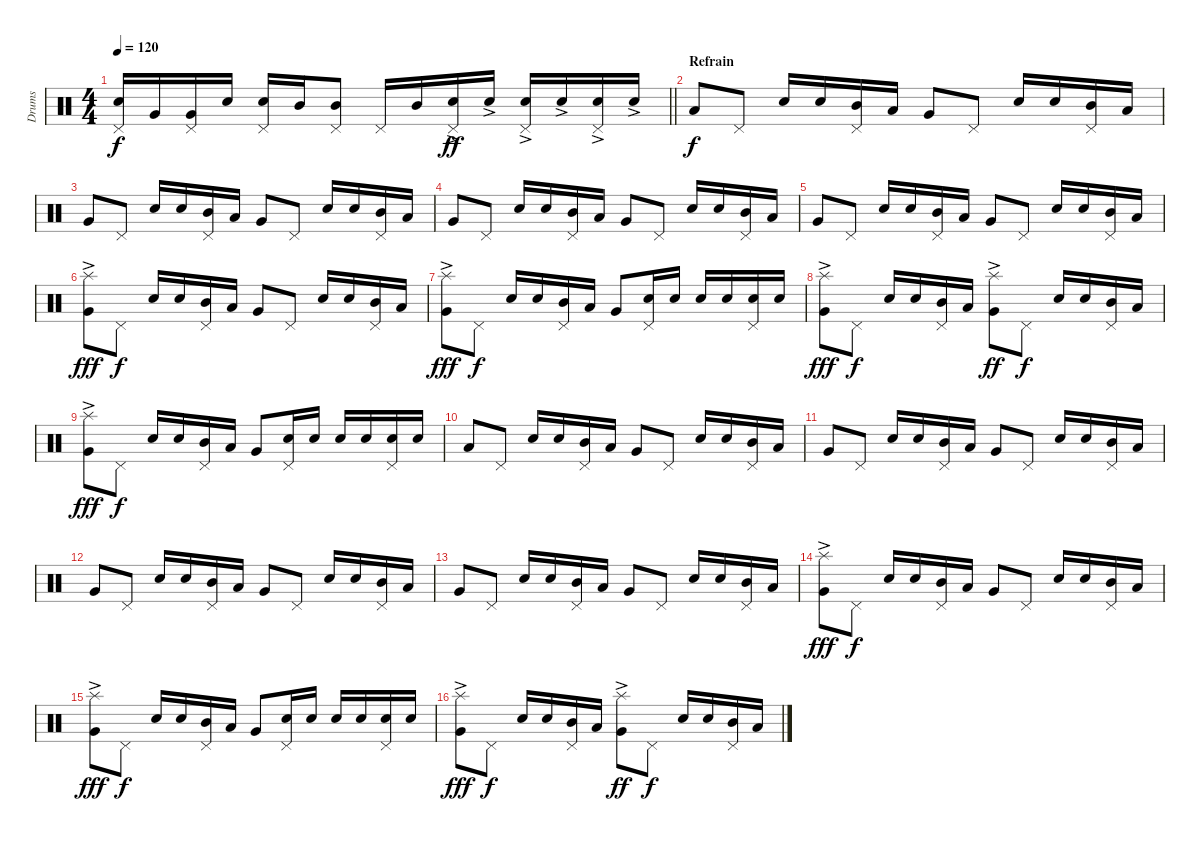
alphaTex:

\track ("Drums" "Drums") {instrument percussion}
\staff {score}
\articulation defaults
\ts (4 4)
\tempo 120
\clef neutral
\barLineRight lightlight
\ks c
("Snare (hit) 2" "Pedal Hi-Hat (hit)").16{dy f} "Very Low Tom (hit)".16 ("Very Low Tom (hit)" "Pedal Hi-Hat (hit)").16 "Snare (hit) 2".16 ("Snare (hit) 2" "Pedal Hi-Hat (hit)").16 "Mid Tom (hit)".16 ("Mid Tom (hit)" "Pedal Hi-Hat (hit)").8 "Pedal Hi-Hat (hit)".16 "Mid Tom (hit)".16 ("Snare (hit) 2"{ac} "Pedal Hi-Hat (hit)"{ac}).16{dy ff} "Snare (hit) 2"{ac}.16 ("Snare (hit) 2"{ac} "Pedal Hi-Hat (hit)"{ac}).16 "Snare (hit) 2"{ac}.16 ("Snare (hit) 2"{ac} "Pedal Hi-Hat (hit)"{ac}).16 "Snare (hit) 2"{ac}.16 |
\section ("" "Refrain")
"Low Tom (hit)".8{dy f} "Pedal Hi-Hat (hit)".8 "Snare (hit) 2".16 "Snare (hit) 2".16 ("Mid Tom (hit)" "Pedal Hi-Hat (hit)").16 "Low Tom (hit)".16 "Very Low Tom (hit)".8 "Pedal Hi-Hat (hit)".8 "Snare (hit) 2".16 "Snare (hit) 2".16 ("Mid Tom (hit)" "Pedal Hi-Hat (hit)").16 "Low Tom (hit)".16 |
"Very Low Tom (hit)".8 "Pedal Hi-Hat (hit)".8 "Snare (hit) 2".16 "Snare (hit) 2".16 ("Mid Tom (hit)" "Pedal Hi-Hat (hit)").16 "Low Tom (hit)".16 "Very Low Tom (hit)".8 "Pedal Hi-Hat (hit)".8 "Snare (hit) 2".16 "Snare (hit) 2".16 ("Mid Tom (hit)" "Pedal Hi-Hat (hit)").16 "Low Tom (hit)".16 |
"Very Low Tom (hit)".8 "Pedal Hi-Hat (hit)".8 "Snare (hit) 2".16 "Snare (hit) 2".16 ("Mid Tom (hit)" "Pedal Hi-Hat (hit)").16 "Low Tom (hit)".16 "Very Low Tom (hit)".8 "Pedal Hi-Hat (hit)".8 "Snare (hit) 2".16 "Snare (hit) 2".16 ("Mid Tom (hit)" "Pedal Hi-Hat (hit)").16 "Low Tom (hit)".16 |
"Very Low Tom (hit)".8 "Pedal Hi-Hat (hit)".8 "Snare (hit) 2".16 "Snare (hit) 2".16 ("Mid Tom (hit)" "Pedal Hi-Hat (hit)").16 "Low Tom (hit)".16 "Very Low Tom (hit)".8 "Pedal Hi-Hat (hit)".8 "Snare (hit) 2".16 "Snare (hit) 2".16 ("Mid Tom (hit)" "Pedal Hi-Hat (hit)").16 "Low Tom (hit)".16 |
("Splash (hit)"{ac} "Very Low Tom (hit)").8{dy fff} "Pedal Hi-Hat (hit)".8{dy f} "Snare (hit) 2".16 "Snare (hit) 2".16 ("Mid Tom (hit)" "Pedal Hi-Hat (hit)").16 "Low Tom (hit)".16 "Very Low Tom (hit)".8 "Pedal Hi-Hat (hit)".8 "Snare (hit) 2".16 "Snare (hit) 2".16 ("Mid Tom (hit)" "Pedal Hi-Hat (hit)").16 "Low Tom (hit)".16 |
("Splash (hit)"{ac} "Very Low Tom (hit)").8{dy fff} "Pedal Hi-Hat (hit)".8{dy f} "Snare (hit) 2".16 "Snare (hit) 2".16 ("Mid Tom (hit)" "Pedal Hi-Hat (hit)").16 "Low Tom (hit)".16 "Very Low Tom (hit)".8 ("Snare (hit) 2" "Pedal Hi-Hat (hit)").16 "Snare (hit) 2".16 "Snare (hit) 2".16 "Snare (hit) 2".16 ("Snare (hit) 2" "Pedal Hi-Hat (hit)").16 "Snare (hit) 2".16 |
("Splash (hit)"{ac} "Very Low Tom (hit)").8{dy fff} "Pedal Hi-Hat (hit)".8{dy f} "Snare (hit) 2".16 "Snare (hit) 2".16 ("Mid Tom (hit)" "Pedal Hi-Hat (hit)").16 "Low Tom (hit)".16 ("Splash (hit)"{ac} "Very Low Tom (hit)").8{dy ff} "Pedal Hi-Hat (hit)".8{dy f} "Snare (hit) 2".16 "Snare (hit) 2".16 ("Mid Tom (hit)" "Pedal Hi-Hat (hit)").16 "Low Tom (hit)".16 |
("Splash (hit)"{ac} "Very Low Tom (hit)").8{dy fff} "Pedal Hi-Hat (hit)".8{dy f} "Snare (hit) 2".16 "Snare (hit) 2".16 ("Mid Tom (hit)" "Pedal Hi-Hat (hit)").16 "Low Tom (hit)".16 "Very Low Tom (hit)".8 ("Snare (hit) 2" "Pedal Hi-Hat (hit)").16 "Snare (hit) 2".16 "Snare (hit) 2".16 "Snare (hit) 2".16 ("Snare (hit) 2" "Pedal Hi-Hat (hit)").16 "Snare (hit) 2".16 |
"Low Tom (hit)".8 "Pedal Hi-Hat (hit)".8 "Snare (hit) 2".16 "Snare (hit) 2".16 ("Mid Tom (hit)" "Pedal Hi-Hat (hit)").16 "Low Tom (hit)".16 "Very Low Tom (hit)".8 "Pedal Hi-Hat (hit)".8 "Snare (hit) 2".16 "Snare (hit) 2".16 ("Mid Tom (hit)" "Pedal Hi-Hat (hit)").16 "Low Tom (hit)".16 |
"Very Low Tom (hit)".8 "Pedal Hi-Hat (hit)".8 "Snare (hit) 2".16 "Snare (hit) 2".16 ("Mid Tom (hit)" "Pedal Hi-Hat (hit)").16 "Low Tom (hit)".16 "Very Low Tom (hit)".8 "Pedal Hi-Hat (hit)".8 "Snare (hit) 2".16 "Snare (hit) 2".16 ("Mid Tom (hit)" "Pedal Hi-Hat (hit)").16 "Low Tom (hit)".16 |
"Very Low Tom (hit)".8 "Pedal Hi-Hat (hit)".8 "Snare (hit) 2".16 "Snare (hit) 2".16 ("Mid Tom (hit)" "Pedal Hi-Hat (hit)").16 "Low Tom (hit)".16 "Very Low Tom (hit)".8 "Pedal Hi-Hat (hit)".8 "Snare (hit) 2".16 "Snare (hit) 2".16 ("Mid Tom (hit)" "Pedal Hi-Hat (hit)").16 "Low Tom (hit)".16 |
"Very Low Tom (hit)".8 "Pedal Hi-Hat (hit)".8 "Snare (hit) 2".16 "Snare (hit) 2".16 ("Mid Tom (hit)" "Pedal Hi-Hat (hit)").16 "Low Tom (hit)".16 "Very Low Tom (hit)".8 "Pedal Hi-Hat (hit)".8 "Snare (hit) 2".16 "Snare (hit) 2".16 ("Mid Tom (hit)" "Pedal Hi-Hat (hit)").16 "Low Tom (hit)".16 |
("Splash (hit)"{ac} "Very Low Tom (hit)").8{dy fff} "Pedal Hi-Hat (hit)".8{dy f} "Snare (hit) 2".16 "Snare (hit) 2".16 ("Mid Tom (hit)" "Pedal Hi-Hat (hit)").16 "Low Tom (hit)".16 "Very Low Tom (hit)".8 "Pedal Hi-Hat (hit)".8 "Snare (hit) 2".16 "Snare (hit) 2".16 ("Mid Tom (hit)" "Pedal Hi-Hat (hit)").16 "Low Tom (hit)".16 |
("Splash (hit)"{ac} "Very Low Tom (hit)").8{dy fff} "Pedal Hi-Hat (hit)".8{dy f} "Snare (hit) 2".16 "Snare (hit) 2".16 ("Mid Tom (hit)" "Pedal Hi-Hat (hit)").16 "Low Tom (hit)".16 "Very Low Tom (hit)".8 ("Snare (hit) 2" "Pedal Hi-Hat (hit)").16 "Snare (hit) 2".16 "Snare (hit) 2".16 "Snare (hit) 2".16 ("Snare (hit) 2" "Pedal Hi-Hat (hit)").16 "Snare (hit) 2".16 |
("Splash (hit)"{ac} "Very Low Tom (hit)").8{dy fff} "Pedal Hi-Hat (hit)".8{dy f} "Snare (hit) 2".16 "Snare (hit) 2".16 ("Mid Tom (hit)" "Pedal Hi-Hat (hit)").16 "Low Tom (hit)".16 ("Splash (hit)"{ac} "Very Low Tom (hit)").8{dy ff} "Pedal Hi-Hat (hit)".8{dy f} "Snare (hit) 2".16 "Snare (hit) 2".16 ("Mid Tom (hit)" "Pedal Hi-Hat (hit)").16 "Low Tom (hit)".16
